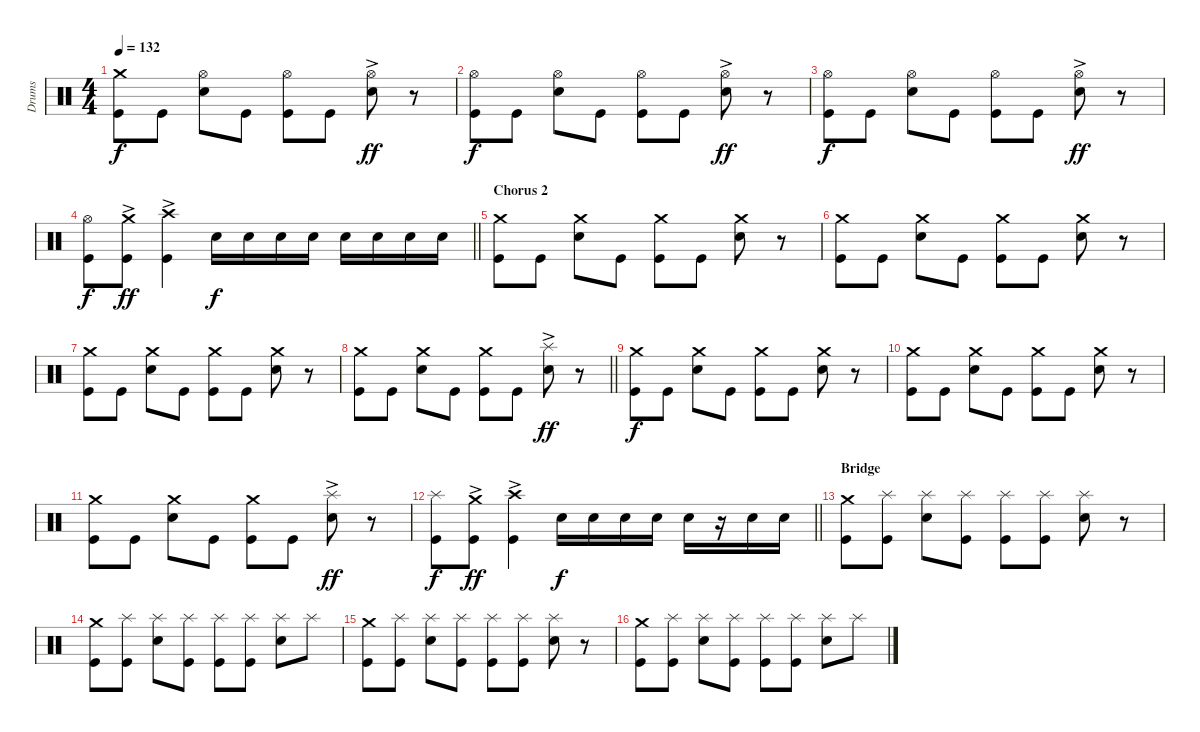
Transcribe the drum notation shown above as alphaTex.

\track ("Drums" "Drums") {instrument percussion}
\staff {score}
\articulation defaults
\ts (4 4)
\tempo 132
\clef neutral
\ks c
("Crash medium (hit)" "Kick (hit)").8{dy f} "Kick (hit)".8 ("Hi-Hat (open)" "Snare (hit) 2").8 "Kick (hit)".8 ("Hi-Hat (open)" "Kick (hit)").8 "Kick (hit)".8 ("Hi-Hat (open)"{ac} "Snare (hit) 2").8{dy ff} r.8 |
("Hi-Hat (open)" "Kick (hit)").8{dy f} "Kick (hit)".8 ("Hi-Hat (open)" "Snare (hit) 2").8 "Kick (hit)".8 ("Hi-Hat (open)" "Kick (hit)").8 "Kick (hit)".8 ("Hi-Hat (open)"{ac} "Snare (hit) 2").8{dy ff} r.8 |
("Hi-Hat (open)" "Kick (hit)").8{dy f} "Kick (hit)".8 ("Hi-Hat (open)" "Snare (hit) 2").8 "Kick (hit)".8 ("Hi-Hat (open)" "Kick (hit)").8 "Kick (hit)".8 ("Hi-Hat (open)"{ac} "Snare (hit) 2").8{dy ff} r.8 |
\barLineRight lightlight
("Hi-Hat (open)" "Kick (hit)").8{dy f} ("Crash medium (hit)"{ac} "Kick (hit)").8{dy ff} ("Crash high (hit)"{ac} "Kick (hit)").4 "Snare (hit) 2".16{dy f} "Snare (hit) 2".16 "Snare (hit) 2".16 "Snare (hit) 2".16 "Snare (hit) 2".16 "Snare (hit) 2".16 "Snare (hit) 2".16 "Snare (hit) 2".16 |
\section ("" "Chorus 2")
("Crash medium (hit)" "Kick (hit)").8 "Kick (hit)".8 ("Crash medium (hit)" "Snare (hit) 2").8 "Kick (hit)".8 ("Crash medium (hit)" "Kick (hit)").8 "Kick (hit)".8 ("Crash medium (hit)" "Snare (hit) 2").8 r.8 |
("Crash medium (hit)" "Kick (hit)").8 "Kick (hit)".8 ("Crash medium (hit)" "Snare (hit) 2").8 "Kick (hit)".8 ("Crash medium (hit)" "Kick (hit)").8 "Kick (hit)".8 ("Crash medium (hit)" "Snare (hit) 2").8 r.8 |
("Crash medium (hit)" "Kick (hit)").8 "Kick (hit)".8 ("Crash medium (hit)" "Snare (hit) 2").8 "Kick (hit)".8 ("Crash medium (hit)" "Kick (hit)").8 "Kick (hit)".8 ("Crash medium (hit)" "Snare (hit) 2").8 r.8 |
\barLineRight lightlight
("Crash medium (hit)" "Kick (hit)").8 "Kick (hit)".8 ("Crash medium (hit)" "Snare (hit) 2").8 "Kick (hit)".8 ("Crash medium (hit)" "Kick (hit)").8 "Kick (hit)".8 ("Splash (hit)"{ac} "Snare (hit) 2").8{dy ff} r.8 |
("Crash medium (hit)" "Kick (hit)").8{dy f} "Kick (hit)".8 ("Crash medium (hit)" "Snare (hit) 2").8 "Kick (hit)".8 ("Crash medium (hit)" "Kick (hit)").8 "Kick (hit)".8 ("Crash medium (hit)" "Snare (hit) 2").8 r.8 |
("Crash medium (hit)" "Kick (hit)").8 "Kick (hit)".8 ("Crash medium (hit)" "Snare (hit) 2").8 "Kick (hit)".8 ("Crash medium (hit)" "Kick (hit)").8 "Kick (hit)".8 ("Crash medium (hit)" "Snare (hit) 2").8 r.8 |
("Crash medium (hit)" "Kick (hit)").8 "Kick (hit)".8 ("Crash medium (hit)" "Snare (hit) 2").8 "Kick (hit)".8 ("Crash medium (hit)" "Kick (hit)").8 "Kick (hit)".8 ("Splash (hit)"{ac} "Snare (hit) 2").8{dy ff} r.8 |
\barLineRight lightlight
("Splash (hit)" "Kick (hit)").8{dy f} ("Crash medium (hit)"{ac} "Kick (hit)").8{dy ff} ("Crash high (hit)"{ac} "Kick (hit)").4 "Snare (hit) 2".16{dy f} "Snare (hit) 2".16 "Snare (hit) 2".16 "Snare (hit) 2".16 "Snare (hit) 2".16 r.16 "Snare (hit) 2".16 "Snare (hit) 2".16 |
\section ("" "Bridge")
("Crash medium (hit)" "Kick (hit)").8 ("Splash (hit)" "Kick (hit)").8 ("Splash (hit)" "Snare (hit) 2").8 ("Splash (hit)" "Kick (hit)").8 ("Splash (hit)" "Kick (hit)").8 ("Splash (hit)" "Kick (hit)").8 ("Splash (hit)" "Snare (hit) 2").8 r.8 |
("Crash medium (hit)" "Kick (hit)").8 ("Splash (hit)" "Kick (hit)").8 ("Splash (hit)" "Snare (hit) 2").8 ("Splash (hit)" "Kick (hit)").8 ("Splash (hit)" "Kick (hit)").8 ("Splash (hit)" "Kick (hit)").8 ("Splash (hit)" "Snare (hit) 2").8 "Splash (hit)".8 |
("Crash medium (hit)" "Kick (hit)").8 ("Splash (hit)" "Kick (hit)").8 ("Splash (hit)" "Snare (hit) 2").8 ("Splash (hit)" "Kick (hit)").8 ("Splash (hit)" "Kick (hit)").8 ("Splash (hit)" "Kick (hit)").8 ("Splash (hit)" "Snare (hit) 2").8 r.8 |
("Crash medium (hit)" "Kick (hit)").8 ("Splash (hit)" "Kick (hit)").8 ("Splash (hit)" "Snare (hit) 2").8 ("Splash (hit)" "Kick (hit)").8 ("Splash (hit)" "Kick (hit)").8 ("Splash (hit)" "Kick (hit)").8 ("Splash (hit)" "Snare (hit) 2").8 "Splash (hit)".8
